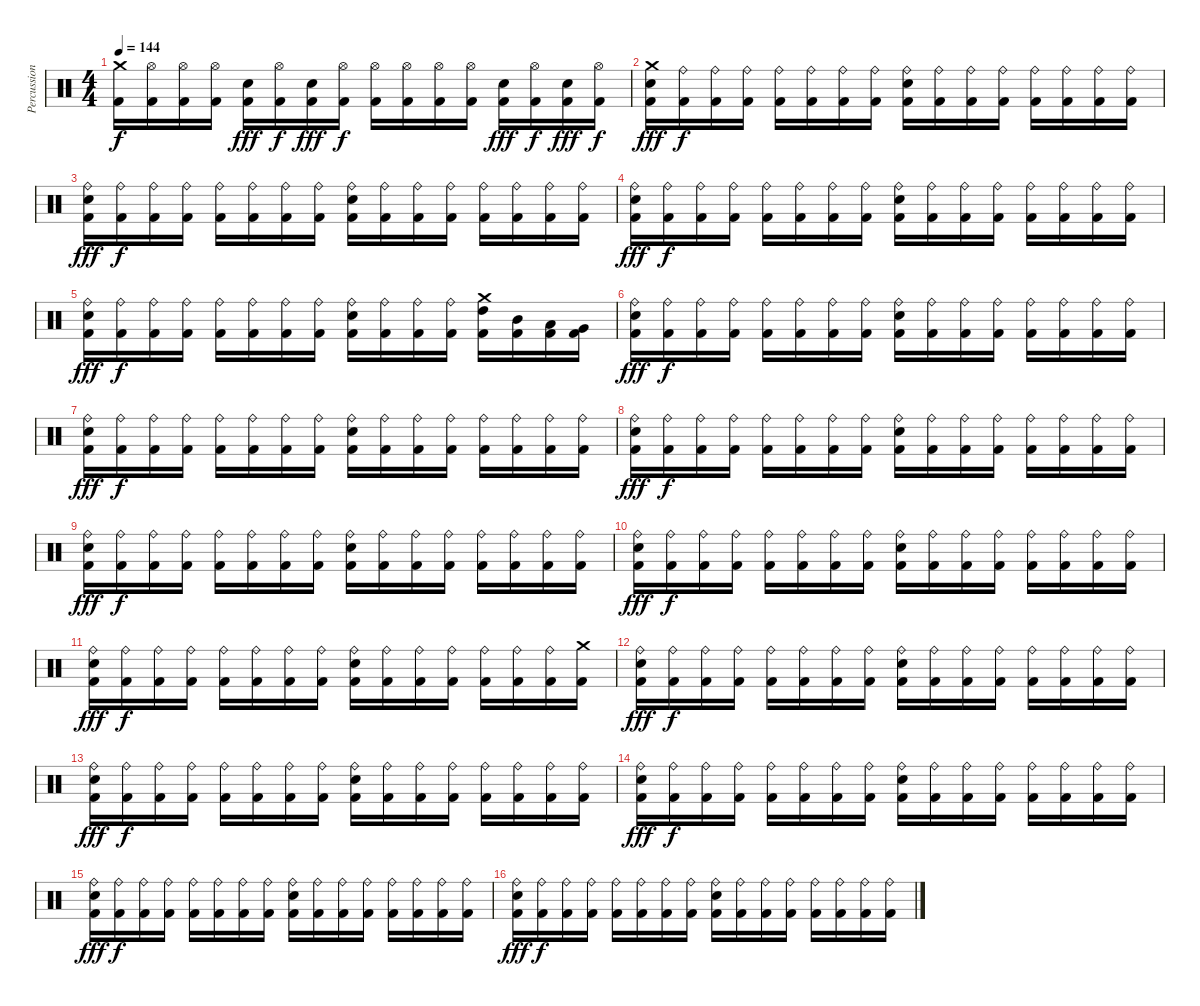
\track ("Percussion -  Bard Faust" "Percussion") {instrument percussion}
\staff {score}
\articulation defaults
\ts (4 4)
\tempo 144
\clef neutral
\ks c
("Crash medium (hit)" "Kick (hit) 2").16{dy f} ("Hi-Hat (open)" "Kick (hit) 2").16 ("Hi-Hat (open)" "Kick (hit) 2").16 ("Hi-Hat (open)" "Kick (hit) 2").16 ("Electric Snare (hit)" "Kick (hit) 2").16{dy fff} ("Hi-Hat (open)" "Kick (hit) 2").16{dy f} ("Electric Snare (hit)" "Kick (hit) 2").16{dy fff} ("Hi-Hat (open)" "Kick (hit) 2").16{dy f} ("Hi-Hat (open)" "Kick (hit) 2").16 ("Hi-Hat (open)" "Kick (hit) 2").16 ("Hi-Hat (open)" "Kick (hit) 2").16 ("Hi-Hat (open)" "Kick (hit) 2").16 ("Electric Snare (hit)" "Kick (hit) 2").16{dy fff} ("Hi-Hat (open)" "Kick (hit) 2").16{dy f} ("Electric Snare (hit)" "Kick (hit) 2").16{dy fff} ("Hi-Hat (open)" "Kick (hit) 2").16{dy f} |
("Crash medium (hit)" "Electric Snare (hit)" "Kick (hit) 2").16{dy fff} ("Ride (bell)" "Kick (hit) 2").16{dy f} ("Ride (bell)" "Kick (hit) 2").16 ("Ride (bell)" "Kick (hit) 2").16 ("Ride (bell)" "Kick (hit) 2").16 ("Ride (bell)" "Kick (hit) 2").16 ("Ride (bell)" "Kick (hit) 2").16 ("Ride (bell)" "Kick (hit) 2").16 ("Ride (bell)" "Electric Snare (hit)" "Kick (hit) 2").16 ("Ride (bell)" "Kick (hit) 2").16 ("Ride (bell)" "Kick (hit) 2").16 ("Ride (bell)" "Kick (hit) 2").16 ("Ride (bell)" "Kick (hit) 2").16 ("Ride (bell)" "Kick (hit) 2").16 ("Ride (bell)" "Kick (hit) 2").16 ("Ride (bell)" "Kick (hit) 2").16 |
("Ride (bell)" "Electric Snare (hit)" "Kick (hit) 2").16{dy fff} ("Ride (bell)" "Kick (hit) 2").16{dy f} ("Ride (bell)" "Kick (hit) 2").16 ("Ride (bell)" "Kick (hit) 2").16 ("Ride (bell)" "Kick (hit) 2").16 ("Ride (bell)" "Kick (hit) 2").16 ("Ride (bell)" "Kick (hit) 2").16 ("Ride (bell)" "Kick (hit) 2").16 ("Ride (bell)" "Electric Snare (hit)" "Kick (hit) 2").16 ("Ride (bell)" "Kick (hit) 2").16 ("Ride (bell)" "Kick (hit) 2").16 ("Ride (bell)" "Kick (hit) 2").16 ("Ride (bell)" "Kick (hit) 2").16 ("Ride (bell)" "Kick (hit) 2").16 ("Ride (bell)" "Kick (hit) 2").16 ("Ride (bell)" "Kick (hit) 2").16 |
("Ride (bell)" "Electric Snare (hit)" "Kick (hit) 2").16{dy fff} ("Ride (bell)" "Kick (hit) 2").16{dy f} ("Ride (bell)" "Kick (hit) 2").16 ("Ride (bell)" "Kick (hit) 2").16 ("Ride (bell)" "Kick (hit) 2").16 ("Ride (bell)" "Kick (hit) 2").16 ("Ride (bell)" "Kick (hit) 2").16 ("Ride (bell)" "Kick (hit) 2").16 ("Ride (bell)" "Electric Snare (hit)" "Kick (hit) 2").16 ("Ride (bell)" "Kick (hit) 2").16 ("Ride (bell)" "Kick (hit) 2").16 ("Ride (bell)" "Kick (hit) 2").16 ("Ride (bell)" "Kick (hit) 2").16 ("Ride (bell)" "Kick (hit) 2").16 ("Ride (bell)" "Kick (hit) 2").16 ("Ride (bell)" "Kick (hit) 2").16 |
("Ride (bell)" "Electric Snare (hit)" "Kick (hit) 2").16{dy fff} ("Ride (bell)" "Kick (hit) 2").16{dy f} ("Ride (bell)" "Kick (hit) 2").16 ("Ride (bell)" "Kick (hit) 2").16 ("Ride (bell)" "Kick (hit) 2").16 ("Ride (bell)" "Kick (hit) 2").16 ("Ride (bell)" "Kick (hit) 2").16 ("Ride (bell)" "Kick (hit) 2").16 ("Ride (bell)" "Electric Snare (hit)" "Kick (hit) 2").16 ("Ride (bell)" "Kick (hit) 2").16 ("Ride (bell)" "Kick (hit) 2").16 ("Ride (bell)" "Kick (hit) 2").16 ("High Tom (hit)" "Crash medium (hit)" "Kick (hit) 2").16 ("Mid Tom (hit)" "Kick (hit) 2").16 ("Low Tom (hit)" "Kick (hit) 2").16 ("Very Low Tom (hit)" "Kick (hit) 2").16 |
("Ride (bell)" "Electric Snare (hit)" "Kick (hit) 2").16{dy fff} ("Ride (bell)" "Kick (hit) 2").16{dy f} ("Ride (bell)" "Kick (hit) 2").16 ("Ride (bell)" "Kick (hit) 2").16 ("Ride (bell)" "Kick (hit) 2").16 ("Ride (bell)" "Kick (hit) 2").16 ("Ride (bell)" "Kick (hit) 2").16 ("Ride (bell)" "Kick (hit) 2").16 ("Ride (bell)" "Electric Snare (hit)" "Kick (hit) 2").16 ("Ride (bell)" "Kick (hit) 2").16 ("Ride (bell)" "Kick (hit) 2").16 ("Ride (bell)" "Kick (hit) 2").16 ("Ride (bell)" "Kick (hit) 2").16 ("Ride (bell)" "Kick (hit) 2").16 ("Ride (bell)" "Kick (hit) 2").16 ("Ride (bell)" "Kick (hit) 2").16 |
("Ride (bell)" "Electric Snare (hit)" "Kick (hit) 2").16{dy fff} ("Ride (bell)" "Kick (hit) 2").16{dy f} ("Ride (bell)" "Kick (hit) 2").16 ("Ride (bell)" "Kick (hit) 2").16 ("Ride (bell)" "Kick (hit) 2").16 ("Ride (bell)" "Kick (hit) 2").16 ("Ride (bell)" "Kick (hit) 2").16 ("Ride (bell)" "Kick (hit) 2").16 ("Ride (bell)" "Electric Snare (hit)" "Kick (hit) 2").16 ("Ride (bell)" "Kick (hit) 2").16 ("Ride (bell)" "Kick (hit) 2").16 ("Ride (bell)" "Kick (hit) 2").16 ("Ride (bell)" "Kick (hit) 2").16 ("Ride (bell)" "Kick (hit) 2").16 ("Ride (bell)" "Kick (hit) 2").16 ("Ride (bell)" "Kick (hit) 2").16 |
("Ride (bell)" "Electric Snare (hit)" "Kick (hit) 2").16{dy fff} ("Ride (bell)" "Kick (hit) 2").16{dy f} ("Ride (bell)" "Kick (hit) 2").16 ("Ride (bell)" "Kick (hit) 2").16 ("Ride (bell)" "Kick (hit) 2").16 ("Ride (bell)" "Kick (hit) 2").16 ("Ride (bell)" "Kick (hit) 2").16 ("Ride (bell)" "Kick (hit) 2").16 ("Ride (bell)" "Electric Snare (hit)" "Kick (hit) 2").16 ("Ride (bell)" "Kick (hit) 2").16 ("Ride (bell)" "Kick (hit) 2").16 ("Ride (bell)" "Kick (hit) 2").16 ("Ride (bell)" "Kick (hit) 2").16 ("Ride (bell)" "Kick (hit) 2").16 ("Ride (bell)" "Kick (hit) 2").16 ("Ride (bell)" "Kick (hit) 2").16 |
("Ride (bell)" "Electric Snare (hit)" "Kick (hit) 2").16{dy fff} ("Ride (bell)" "Kick (hit) 2").16{dy f} ("Ride (bell)" "Kick (hit) 2").16 ("Ride (bell)" "Kick (hit) 2").16 ("Ride (bell)" "Kick (hit) 2").16 ("Ride (bell)" "Kick (hit) 2").16 ("Ride (bell)" "Kick (hit) 2").16 ("Ride (bell)" "Kick (hit) 2").16 ("Ride (bell)" "Electric Snare (hit)" "Kick (hit) 2").16 ("Ride (bell)" "Kick (hit) 2").16 ("Ride (bell)" "Kick (hit) 2").16 ("Ride (bell)" "Kick (hit) 2").16 ("Ride (bell)" "Kick (hit) 2").16 ("Ride (bell)" "Kick (hit) 2").16 ("Ride (bell)" "Kick (hit) 2").16 ("Ride (bell)" "Kick (hit) 2").16 |
("Ride (bell)" "Electric Snare (hit)" "Kick (hit) 2").16{dy fff} ("Ride (bell)" "Kick (hit) 2").16{dy f} ("Ride (bell)" "Kick (hit) 2").16 ("Ride (bell)" "Kick (hit) 2").16 ("Ride (bell)" "Kick (hit) 2").16 ("Ride (bell)" "Kick (hit) 2").16 ("Ride (bell)" "Kick (hit) 2").16 ("Ride (bell)" "Kick (hit) 2").16 ("Ride (bell)" "Electric Snare (hit)" "Kick (hit) 2").16 ("Ride (bell)" "Kick (hit) 2").16 ("Ride (bell)" "Kick (hit) 2").16 ("Ride (bell)" "Kick (hit) 2").16 ("Ride (bell)" "Kick (hit) 2").16 ("Ride (bell)" "Kick (hit) 2").16 ("Ride (bell)" "Kick (hit) 2").16 ("Ride (bell)" "Kick (hit) 2").16 |
("Ride (bell)" "Electric Snare (hit)" "Kick (hit) 2").16{dy fff} ("Ride (bell)" "Kick (hit) 2").16{dy f} ("Ride (bell)" "Kick (hit) 2").16 ("Ride (bell)" "Kick (hit) 2").16 ("Ride (bell)" "Kick (hit) 2").16 ("Ride (bell)" "Kick (hit) 2").16 ("Ride (bell)" "Kick (hit) 2").16 ("Ride (bell)" "Kick (hit) 2").16 ("Ride (bell)" "Electric Snare (hit)" "Kick (hit) 2").16 ("Ride (bell)" "Kick (hit) 2").16 ("Ride (bell)" "Kick (hit) 2").16 ("Ride (bell)" "Kick (hit) 2").16 ("Ride (bell)" "Kick (hit) 2").16 ("Ride (bell)" "Kick (hit) 2").16 ("Ride (bell)" "Kick (hit) 2").16 ("Crash medium (hit)" "Kick (hit) 2").16 |
("Ride (bell)" "Electric Snare (hit)" "Kick (hit) 2").16{dy fff} ("Ride (bell)" "Kick (hit) 2").16{dy f} ("Ride (bell)" "Kick (hit) 2").16 ("Ride (bell)" "Kick (hit) 2").16 ("Ride (bell)" "Kick (hit) 2").16 ("Ride (bell)" "Kick (hit) 2").16 ("Ride (bell)" "Kick (hit) 2").16 ("Ride (bell)" "Kick (hit) 2").16 ("Ride (bell)" "Electric Snare (hit)" "Kick (hit) 2").16 ("Ride (bell)" "Kick (hit) 2").16 ("Ride (bell)" "Kick (hit) 2").16 ("Ride (bell)" "Kick (hit) 2").16 ("Ride (bell)" "Kick (hit) 2").16 ("Ride (bell)" "Kick (hit) 2").16 ("Ride (bell)" "Kick (hit) 2").16 ("Ride (bell)" "Kick (hit) 2").16 |
("Ride (bell)" "Electric Snare (hit)" "Kick (hit) 2").16{dy fff} ("Ride (bell)" "Kick (hit) 2").16{dy f} ("Ride (bell)" "Kick (hit) 2").16 ("Ride (bell)" "Kick (hit) 2").16 ("Ride (bell)" "Kick (hit) 2").16 ("Ride (bell)" "Kick (hit) 2").16 ("Ride (bell)" "Kick (hit) 2").16 ("Ride (bell)" "Kick (hit) 2").16 ("Ride (bell)" "Electric Snare (hit)" "Kick (hit) 2").16 ("Ride (bell)" "Kick (hit) 2").16 ("Ride (bell)" "Kick (hit) 2").16 ("Ride (bell)" "Kick (hit) 2").16 ("Ride (bell)" "Kick (hit) 2").16 ("Ride (bell)" "Kick (hit) 2").16 ("Ride (bell)" "Kick (hit) 2").16 ("Ride (bell)" "Kick (hit) 2").16 |
("Ride (bell)" "Electric Snare (hit)" "Kick (hit) 2").16{dy fff} ("Ride (bell)" "Kick (hit) 2").16{dy f} ("Ride (bell)" "Kick (hit) 2").16 ("Ride (bell)" "Kick (hit) 2").16 ("Ride (bell)" "Kick (hit) 2").16 ("Ride (bell)" "Kick (hit) 2").16 ("Ride (bell)" "Kick (hit) 2").16 ("Ride (bell)" "Kick (hit) 2").16 ("Ride (bell)" "Electric Snare (hit)" "Kick (hit) 2").16 ("Ride (bell)" "Kick (hit) 2").16 ("Ride (bell)" "Kick (hit) 2").16 ("Ride (bell)" "Kick (hit) 2").16 ("Ride (bell)" "Kick (hit) 2").16 ("Ride (bell)" "Kick (hit) 2").16 ("Ride (bell)" "Kick (hit) 2").16 ("Ride (bell)" "Kick (hit) 2").16 |
("Ride (bell)" "Electric Snare (hit)" "Kick (hit) 2").16{dy fff} ("Ride (bell)" "Kick (hit) 2").16{dy f} ("Ride (bell)" "Kick (hit) 2").16 ("Ride (bell)" "Kick (hit) 2").16 ("Ride (bell)" "Kick (hit) 2").16 ("Ride (bell)" "Kick (hit) 2").16 ("Ride (bell)" "Kick (hit) 2").16 ("Ride (bell)" "Kick (hit) 2").16 ("Ride (bell)" "Electric Snare (hit)" "Kick (hit) 2").16 ("Ride (bell)" "Kick (hit) 2").16 ("Ride (bell)" "Kick (hit) 2").16 ("Ride (bell)" "Kick (hit) 2").16 ("Ride (bell)" "Kick (hit) 2").16 ("Ride (bell)" "Kick (hit) 2").16 ("Ride (bell)" "Kick (hit) 2").16 ("Ride (bell)" "Kick (hit) 2").16 |
("Ride (bell)" "Electric Snare (hit)" "Kick (hit) 2").16{dy fff} ("Ride (bell)" "Kick (hit) 2").16{dy f} ("Ride (bell)" "Kick (hit) 2").16 ("Ride (bell)" "Kick (hit) 2").16 ("Ride (bell)" "Kick (hit) 2").16 ("Ride (bell)" "Kick (hit) 2").16 ("Ride (bell)" "Kick (hit) 2").16 ("Ride (bell)" "Kick (hit) 2").16 ("Ride (bell)" "Electric Snare (hit)" "Kick (hit) 2").16 ("Ride (bell)" "Kick (hit) 2").16 ("Ride (bell)" "Kick (hit) 2").16 ("Ride (bell)" "Kick (hit) 2").16 ("Ride (bell)" "Kick (hit) 2").16 ("Ride (bell)" "Kick (hit) 2").16 ("Ride (bell)" "Kick (hit) 2").16 ("Ride (bell)" "Kick (hit) 2").16
